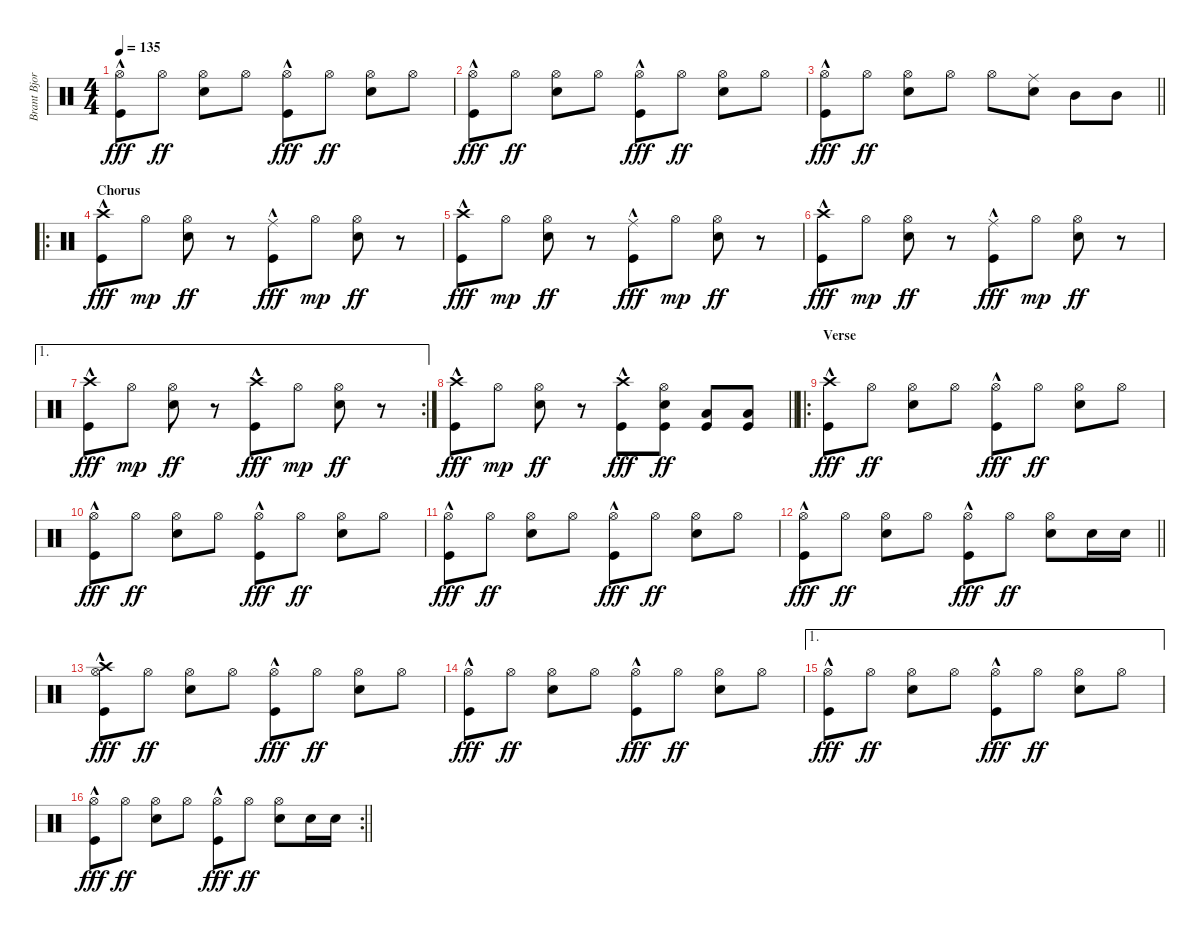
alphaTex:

\track ("Brant Bjork" "Brant Bjor") {instrument percussion}
\staff {score}
\articulation defaults
\ts (4 4)
\tempo 135
\clef neutral
\ks c
("Hi-Hat (open)" "Kick (hit)"{hac}).8{dy fff} "Hi-Hat (open)".8{dy ff} ("Hi-Hat (open)" "Snare (hit) 2").8 "Hi-Hat (open)".8 ("Hi-Hat (open)" "Kick (hit)"{hac}).8{dy fff} "Hi-Hat (open)".8{dy ff} ("Hi-Hat (open)" "Snare (hit) 2").8 "Hi-Hat (open)".8 |
("Hi-Hat (open)" "Kick (hit)"{hac}).8{dy fff} "Hi-Hat (open)".8{dy ff} ("Hi-Hat (open)" "Snare (hit) 2").8 "Hi-Hat (open)".8 ("Hi-Hat (open)" "Kick (hit)"{hac}).8{dy fff} "Hi-Hat (open)".8{dy ff} ("Hi-Hat (open)" "Snare (hit) 2").8 "Hi-Hat (open)".8 |
\barLineRight lightlight
("Hi-Hat (open)" "Kick (hit)"{hac}).8{dy fff} "Hi-Hat (open)".8{dy ff} ("Hi-Hat (open)" "Snare (hit) 2").8 "Hi-Hat (open)".8 "Hi-Hat (open)".8 ("Ride (middle)" "Snare (hit) 2").8 "Mid Tom (hit)".8 "Mid Tom (hit)".8 |
\ro
\section ("" "Chorus")
("Crash high (hit)" "Kick (hit)"{hac}).8{dy fff} "Hi-Hat (open)".8{dy mp} ("Hi-Hat (open)" "Snare (hit) 2").8{dy ff} r.8 ("Ride (middle)" "Kick (hit)"{hac}).8{dy fff} "Hi-Hat (open)".8{dy mp} ("Hi-Hat (open)" "Snare (hit) 2").8{dy ff} r.8 |
("Crash high (hit)" "Kick (hit)"{hac}).8{dy fff} "Hi-Hat (open)".8{dy mp} ("Hi-Hat (open)" "Snare (hit) 2").8{dy ff} r.8 ("Ride (middle)" "Kick (hit)"{hac}).8{dy fff} "Hi-Hat (open)".8{dy mp} ("Hi-Hat (open)" "Snare (hit) 2").8{dy ff} r.8 |
("Crash high (hit)" "Kick (hit)"{hac}).8{dy fff} "Hi-Hat (open)".8{dy mp} ("Hi-Hat (open)" "Snare (hit) 2").8{dy ff} r.8 ("Ride (middle)" "Kick (hit)"{hac}).8{dy fff} "Hi-Hat (open)".8{dy mp} ("Hi-Hat (open)" "Snare (hit) 2").8{dy ff} r.8 |
\ae 1
\rc 2
("Crash high (hit)" "Kick (hit)"{hac}).8{dy fff} "Hi-Hat (open)".8{dy mp} ("Hi-Hat (open)" "Snare (hit) 2").8{dy ff} r.8 ("Crash high (hit)" "Kick (hit)"{hac}).8{dy fff} "Hi-Hat (open)".8{dy mp} ("Hi-Hat (open)" "Snare (hit) 2").8{dy ff} r.8 |
\barLineRight lightlight
("Crash high (hit)" "Kick (hit)"{hac}).8{dy fff} "Hi-Hat (open)".8{dy mp} ("Hi-Hat (open)" "Snare (hit) 2").8{dy ff} r.8 ("Crash high (hit)" "Kick (hit)"{hac}).8{dy fff} ("Hi-Hat (open)" "Snare (hit) 2" "Kick (hit)").8{dy ff} ("Low Tom (hit)" "Kick (hit)").8 ("Low Tom (hit)" "Kick (hit)").8 |
\ro
\section ("" "Verse")
("Crash high (hit)" "Kick (hit)"{hac}).8{dy fff} "Hi-Hat (open)".8{dy ff} ("Hi-Hat (open)" "Snare (hit) 2").8 "Hi-Hat (open)".8 ("Hi-Hat (open)" "Kick (hit)"{hac}).8{dy fff} "Hi-Hat (open)".8{dy ff} ("Hi-Hat (open)" "Snare (hit) 2").8 "Hi-Hat (open)".8 |
("Hi-Hat (open)" "Kick (hit)"{hac}).8{dy fff} "Hi-Hat (open)".8{dy ff} ("Hi-Hat (open)" "Snare (hit) 2").8 "Hi-Hat (open)".8 ("Hi-Hat (open)" "Kick (hit)"{hac}).8{dy fff} "Hi-Hat (open)".8{dy ff} ("Hi-Hat (open)" "Snare (hit) 2").8 "Hi-Hat (open)".8 |
("Hi-Hat (open)" "Kick (hit)"{hac}).8{dy fff} "Hi-Hat (open)".8{dy ff} ("Hi-Hat (open)" "Snare (hit) 2").8 "Hi-Hat (open)".8 ("Hi-Hat (open)" "Kick (hit)"{hac}).8{dy fff} "Hi-Hat (open)".8{dy ff} ("Hi-Hat (open)" "Snare (hit) 2").8 "Hi-Hat (open)".8 |
\barLineRight lightlight
("Hi-Hat (open)" "Kick (hit)"{hac}).8{dy fff} "Hi-Hat (open)".8{dy ff} ("Hi-Hat (open)" "Snare (hit) 2").8 "Hi-Hat (open)".8 ("Hi-Hat (open)" "Kick (hit)"{hac}).8{dy fff} "Hi-Hat (open)".8{dy ff} ("Hi-Hat (open)" "Snare (hit) 2").8 "Snare (hit) 2".16 "Snare (hit) 2".16 |
("Hi-Hat (open)" "Crash high (hit)" "Kick (hit)"{hac}).8{dy fff} "Hi-Hat (open)".8{dy ff} ("Hi-Hat (open)" "Snare (hit) 2").8 "Hi-Hat (open)".8 ("Hi-Hat (open)" "Kick (hit)"{hac}).8{dy fff} "Hi-Hat (open)".8{dy ff} ("Hi-Hat (open)" "Snare (hit) 2").8 "Hi-Hat (open)".8 |
("Hi-Hat (open)" "Kick (hit)"{hac}).8{dy fff} "Hi-Hat (open)".8{dy ff} ("Hi-Hat (open)" "Snare (hit) 2").8 "Hi-Hat (open)".8 ("Hi-Hat (open)" "Kick (hit)"{hac}).8{dy fff} "Hi-Hat (open)".8{dy ff} ("Hi-Hat (open)" "Snare (hit) 2").8 "Hi-Hat (open)".8 |
\ae 1
("Hi-Hat (open)" "Kick (hit)"{hac}).8{dy fff} "Hi-Hat (open)".8{dy ff} ("Hi-Hat (open)" "Snare (hit) 2").8 "Hi-Hat (open)".8 ("Hi-Hat (open)" "Kick (hit)"{hac}).8{dy fff} "Hi-Hat (open)".8{dy ff} ("Hi-Hat (open)" "Snare (hit) 2").8 "Hi-Hat (open)".8 |
\rc 2
\barLineRight lightlight
("Hi-Hat (open)" "Kick (hit)"{hac}).8{dy fff} "Hi-Hat (open)".8{dy ff} ("Hi-Hat (open)" "Snare (hit) 2").8 "Hi-Hat (open)".8 ("Hi-Hat (open)" "Kick (hit)"{hac}).8{dy fff} "Hi-Hat (open)".8{dy ff} ("Hi-Hat (open)" "Snare (hit) 2").8 "Snare (hit) 2".16 "Snare (hit) 2".16
